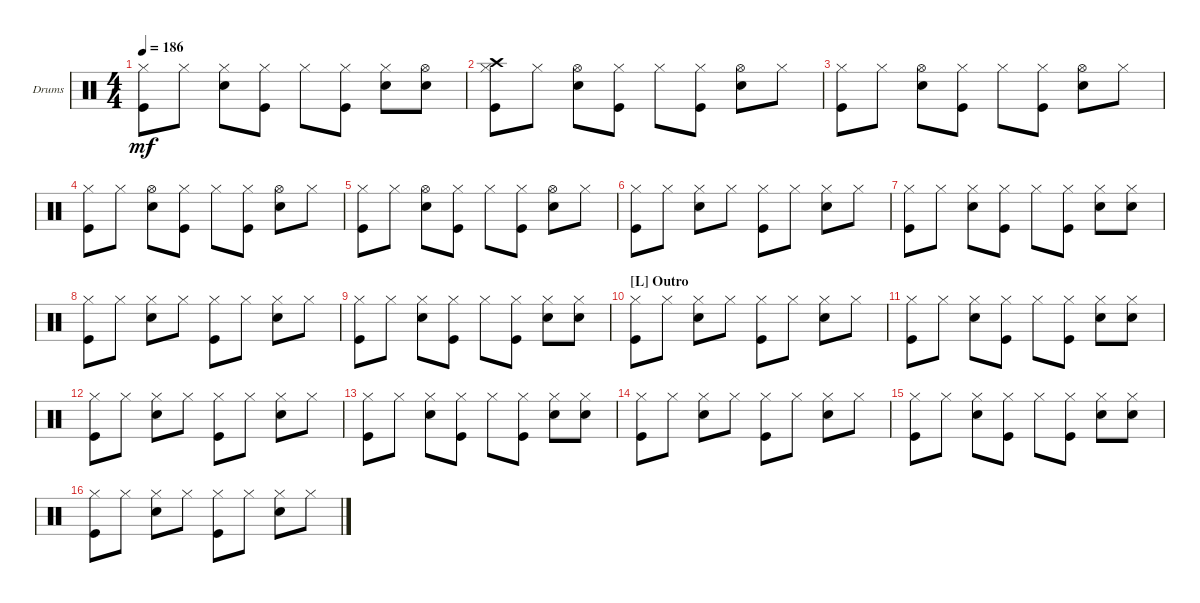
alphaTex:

\bracketExtendMode groupsimilarinstruments
\firstSystemTrackNameOrientation horizontal
\otherSystemsTrackNameOrientation horizontal
\track ("Drumkit" "Drums") {instrument percussion}
\staff {score}
\articulation defaults
\ts (4 4)
\tempo 186
\clef neutral
\ks c
("Hi-Hat (closed)" "Kick (hit)").8{dy mf} "Hi-Hat (closed)".8 ("Hi-Hat (closed)" "Snare (hit) 2").8 ("Hi-Hat (closed)" "Kick (hit)").8 "Hi-Hat (closed)".8 ("Hi-Hat (closed)" "Kick (hit)").8 ("Hi-Hat (closed)" "Snare (hit) 2").8 ("Hi-Hat (open)" "Snare (hit) 2").8 |
("Hi-Hat (closed)" "Crash high (hit)" "Kick (hit)").8 "Hi-Hat (closed)".8 ("Hi-Hat (open)" "Snare (hit) 2").8 ("Hi-Hat (closed)" "Kick (hit)").8 "Hi-Hat (closed)".8 ("Hi-Hat (closed)" "Kick (hit)").8 ("Hi-Hat (open)" "Snare (hit) 2").8 "Hi-Hat (closed)".8 |
("Hi-Hat (closed)" "Kick (hit)").8 "Hi-Hat (closed)".8 ("Hi-Hat (open)" "Snare (hit) 2").8 ("Hi-Hat (closed)" "Kick (hit)").8 "Hi-Hat (closed)".8 ("Hi-Hat (closed)" "Kick (hit)").8 ("Hi-Hat (open)" "Snare (hit) 2").8 "Hi-Hat (closed)".8 |
("Hi-Hat (closed)" "Kick (hit)").8 "Hi-Hat (closed)".8 ("Hi-Hat (open)" "Snare (hit) 2").8 ("Hi-Hat (closed)" "Kick (hit)").8 "Hi-Hat (closed)".8 ("Hi-Hat (closed)" "Kick (hit)").8 ("Hi-Hat (open)" "Snare (hit) 2").8 "Hi-Hat (closed)".8 |
("Hi-Hat (closed)" "Kick (hit)").8 "Hi-Hat (closed)".8 ("Hi-Hat (open)" "Snare (hit) 2").8 ("Hi-Hat (closed)" "Kick (hit)").8 "Hi-Hat (closed)".8 ("Hi-Hat (closed)" "Kick (hit)").8 ("Hi-Hat (open)" "Snare (hit) 2").8 "Hi-Hat (closed)".8 |
("Hi-Hat (closed)" "Kick (hit)").8 "Hi-Hat (closed)".8 ("Hi-Hat (closed)" "Snare (hit) 2").8 "Hi-Hat (closed)".8 ("Hi-Hat (closed)" "Kick (hit)").8 "Hi-Hat (closed)".8 ("Hi-Hat (closed)" "Snare (hit) 2").8 "Hi-Hat (closed)".8 |
("Hi-Hat (closed)" "Kick (hit)").8 "Hi-Hat (closed)".8 ("Hi-Hat (closed)" "Snare (hit) 2").8 ("Hi-Hat (closed)" "Kick (hit)").8 "Hi-Hat (closed)".8 ("Hi-Hat (closed)" "Kick (hit)").8 ("Hi-Hat (closed)" "Snare (hit) 2").8 ("Hi-Hat (closed)" "Snare (hit) 2").8 |
("Hi-Hat (closed)" "Kick (hit)").8 "Hi-Hat (closed)".8 ("Hi-Hat (closed)" "Snare (hit) 2").8 "Hi-Hat (closed)".8 ("Hi-Hat (closed)" "Kick (hit)").8 "Hi-Hat (closed)".8 ("Hi-Hat (closed)" "Snare (hit) 2").8 "Hi-Hat (closed)".8 |
("Hi-Hat (closed)" "Kick (hit)").8 "Hi-Hat (closed)".8 ("Hi-Hat (closed)" "Snare (hit) 2").8 ("Hi-Hat (closed)" "Kick (hit)").8 "Hi-Hat (closed)".8 ("Hi-Hat (closed)" "Kick (hit)").8 ("Hi-Hat (closed)" "Snare (hit) 2").8 ("Hi-Hat (closed)" "Snare (hit) 2").8 |
\section ("L" "Outro")
("Hi-Hat (closed)" "Kick (hit)").8 "Hi-Hat (closed)".8 ("Hi-Hat (closed)" "Snare (hit) 2").8 "Hi-Hat (closed)".8 ("Hi-Hat (closed)" "Kick (hit)").8 "Hi-Hat (closed)".8 ("Hi-Hat (closed)" "Snare (hit) 2").8 "Hi-Hat (closed)".8 |
("Hi-Hat (closed)" "Kick (hit)").8 "Hi-Hat (closed)".8 ("Hi-Hat (closed)" "Snare (hit) 2").8 ("Hi-Hat (closed)" "Kick (hit)").8 "Hi-Hat (closed)".8 ("Hi-Hat (closed)" "Kick (hit)").8 ("Hi-Hat (closed)" "Snare (hit) 2").8 ("Hi-Hat (closed)" "Snare (hit) 2").8 |
("Hi-Hat (closed)" "Kick (hit)").8 "Hi-Hat (closed)".8 ("Hi-Hat (closed)" "Snare (hit) 2").8 "Hi-Hat (closed)".8 ("Hi-Hat (closed)" "Kick (hit)").8 "Hi-Hat (closed)".8 ("Hi-Hat (closed)" "Snare (hit) 2").8 "Hi-Hat (closed)".8 |
("Hi-Hat (closed)" "Kick (hit)").8 "Hi-Hat (closed)".8 ("Hi-Hat (closed)" "Snare (hit) 2").8 ("Hi-Hat (closed)" "Kick (hit)").8 "Hi-Hat (closed)".8 ("Hi-Hat (closed)" "Kick (hit)").8 ("Hi-Hat (closed)" "Snare (hit) 2").8 ("Hi-Hat (closed)" "Snare (hit) 2").8 |
("Hi-Hat (closed)" "Kick (hit)").8 "Hi-Hat (closed)".8 ("Hi-Hat (closed)" "Snare (hit) 2").8 "Hi-Hat (closed)".8 ("Hi-Hat (closed)" "Kick (hit)").8 "Hi-Hat (closed)".8 ("Hi-Hat (closed)" "Snare (hit) 2").8 "Hi-Hat (closed)".8 |
("Hi-Hat (closed)" "Kick (hit)").8 "Hi-Hat (closed)".8 ("Hi-Hat (closed)" "Snare (hit) 2").8 ("Hi-Hat (closed)" "Kick (hit)").8 "Hi-Hat (closed)".8 ("Hi-Hat (closed)" "Kick (hit)").8 ("Hi-Hat (closed)" "Snare (hit) 2").8 ("Hi-Hat (closed)" "Snare (hit) 2").8 |
("Hi-Hat (closed)" "Kick (hit)").8 "Hi-Hat (closed)".8 ("Hi-Hat (closed)" "Snare (hit) 2").8 "Hi-Hat (closed)".8 ("Hi-Hat (closed)" "Kick (hit)").8 "Hi-Hat (closed)".8 ("Hi-Hat (closed)" "Snare (hit) 2").8 "Hi-Hat (closed)".8
